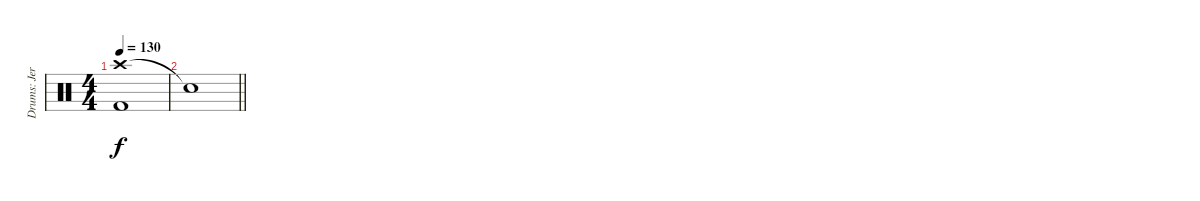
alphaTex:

\track ("Drums: Jere Luokkamäki" "Drums: Jer") {instrument percussion}
\staff {score}
\articulation defaults
\ts (4 4)
\tempo 130
\clef neutral
\ks aminor
("Crash high (hit)" "Kick (hit) 2").1{dy f} |
\barLineRight lightlight "Snare (hit)"{t}.1
